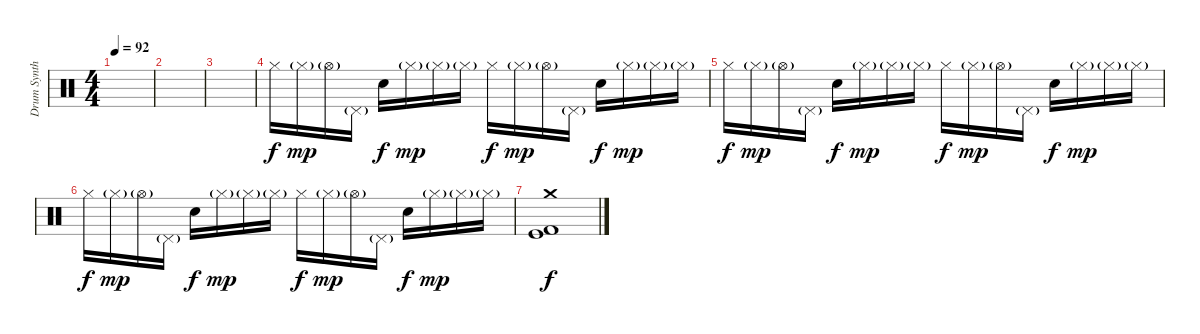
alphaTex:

\track ("Drum Synth" "Drum Synth") {instrument percussion}
\staff {score}
\articulation defaults
\ts (4 4)
\tempo 92
\clef neutral
\ks c
|
|
|
"Hi-Hat (closed)".16{dy f} "Hi-Hat (closed)"{g}.16{dy mp} "Hi-Hat (open)"{g}.16 "Pedal Hi-Hat (hit)"{g}.16 "Electric Snare (hit)".16{dy f} "Hi-Hat (closed)"{g}.16{dy mp} "Hi-Hat (closed)"{g}.16 "Hi-Hat (closed)"{g}.16 "Hi-Hat (closed)".16{dy f} "Hi-Hat (closed)"{g}.16{dy mp} "Hi-Hat (open)"{g}.16 "Pedal Hi-Hat (hit)"{g}.16 "Electric Snare (hit)".16{dy f} "Hi-Hat (closed)"{g}.16{dy mp} "Hi-Hat (closed)"{g}.16 "Hi-Hat (closed)"{g}.16 |
"Hi-Hat (closed)".16{dy f} "Hi-Hat (closed)"{g}.16{dy mp} "Hi-Hat (open)"{g}.16 "Pedal Hi-Hat (hit)"{g}.16 "Electric Snare (hit)".16{dy f} "Hi-Hat (closed)"{g}.16{dy mp} "Hi-Hat (closed)"{g}.16 "Hi-Hat (closed)"{g}.16 "Hi-Hat (closed)".16{dy f} "Hi-Hat (closed)"{g}.16{dy mp} "Hi-Hat (open)"{g}.16 "Pedal Hi-Hat (hit)"{g}.16 "Electric Snare (hit)".16{dy f} "Hi-Hat (closed)"{g}.16{dy mp} "Hi-Hat (closed)"{g}.16 "Hi-Hat (closed)"{g}.16 |
"Hi-Hat (closed)".16{dy f} "Hi-Hat (closed)"{g}.16{dy mp} "Hi-Hat (open)"{g}.16 "Pedal Hi-Hat (hit)"{g}.16 "Electric Snare (hit)".16{dy f} "Hi-Hat (closed)"{g}.16{dy mp} "Hi-Hat (closed)"{g}.16 "Hi-Hat (closed)"{g}.16 "Hi-Hat (closed)".16{dy f} "Hi-Hat (closed)"{g}.16{dy mp} "Hi-Hat (open)"{g}.16 "Pedal Hi-Hat (hit)"{g}.16 "Electric Snare (hit)".16{dy f} "Hi-Hat (closed)"{g}.16{dy mp} "Hi-Hat (closed)"{g}.16 "Hi-Hat (closed)"{g}.16 |
("Crash medium (hit)" "Kick (hit)" "Kick (hit) 2").1{dy f}
